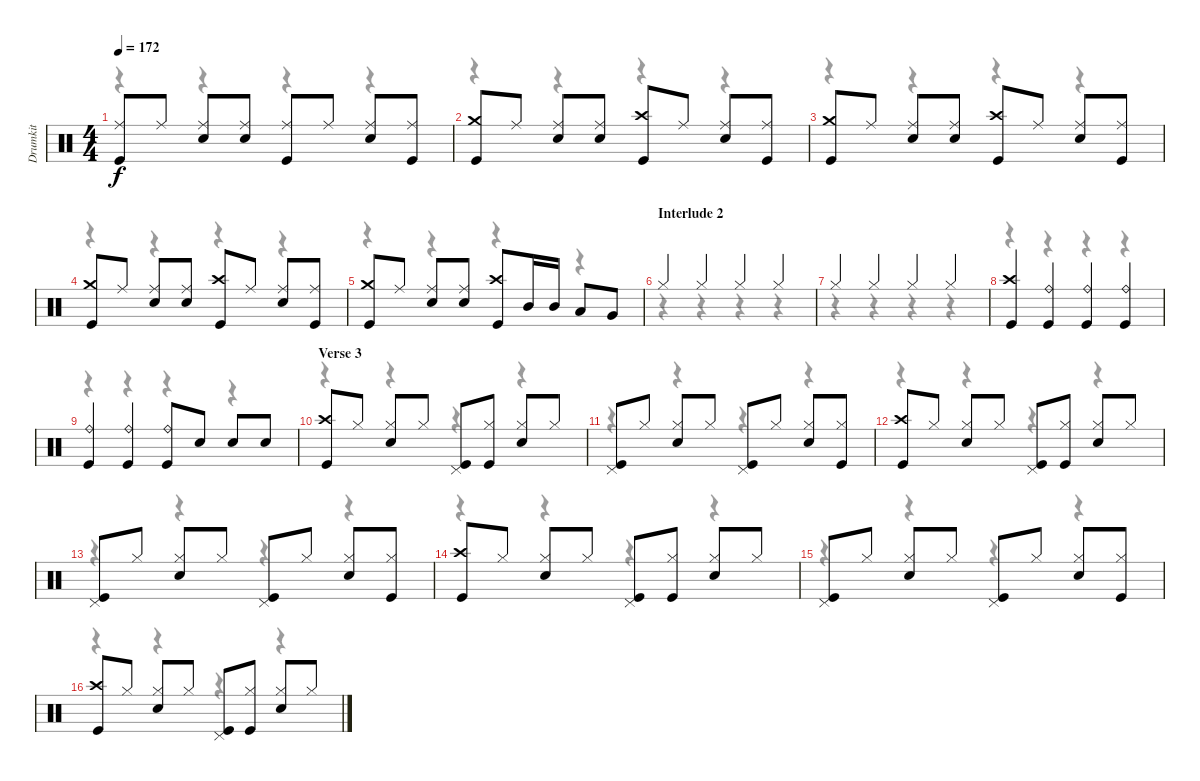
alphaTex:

\track ("Drumkit" "Drumkit") {instrument percussion}
\staff {score}
\articulation defaults
\voice
\ts (4 4)
\tempo 172
\clef neutral
\ks c
("Ride (middle)" "Kick (hit)").8{dy f} "Ride (middle)".8 ("Ride (middle)" "Snare (hit) 2").8 ("Ride (middle)" "Snare (hit) 2").8 ("Ride (middle)" "Kick (hit)").8 "Ride (middle)".8 ("Ride (middle)" "Snare (hit) 2").8 ("Ride (middle)" "Kick (hit)").8 |
("Crash medium (hit)" "Kick (hit)").8 "Ride (middle)".8 ("Ride (middle)" "Snare (hit) 2").8 ("Ride (middle)" "Snare (hit) 2").8 ("Crash high (hit)" "Kick (hit)").8 "Ride (middle)".8 ("Ride (middle)" "Snare (hit) 2").8 ("Ride (middle)" "Kick (hit)").8 |
("Crash medium (hit)" "Kick (hit)").8 "Ride (middle)".8 ("Ride (middle)" "Snare (hit) 2").8 ("Ride (middle)" "Snare (hit) 2").8 ("Crash high (hit)" "Kick (hit)").8 "Ride (middle)".8 ("Ride (middle)" "Snare (hit) 2").8 ("Ride (middle)" "Kick (hit)").8 |
("Crash medium (hit)" "Kick (hit)").8 "Ride (middle)".8 ("Ride (middle)" "Snare (hit) 2").8 ("Ride (middle)" "Snare (hit) 2").8 ("Crash high (hit)" "Kick (hit)").8 "Ride (middle)".8 ("Ride (middle)" "Snare (hit) 2").8 ("Ride (middle)" "Kick (hit)").8 |
("Crash medium (hit)" "Kick (hit)").8 "Ride (middle)".8 ("Ride (middle)" "Snare (hit) 2").8 ("Ride (middle)" "Snare (hit) 2").8 ("Crash high (hit)" "Kick (hit)").8 "Mid Tom (hit)".16 "Mid Tom (hit)".16 "Low Tom (hit)".8 "Very Low Tom (hit)".8 |
\section ("" "Interlude 2")
"Hi-Hat (closed)".4 "Hi-Hat (closed)".4 "Hi-Hat (closed)".4 "Hi-Hat (closed)".4 |
"Hi-Hat (closed)".4 "Hi-Hat (closed)".4 "Hi-Hat (closed)".4 "Hi-Hat (closed)".4 |
("Crash high (hit)" "Kick (hit)").4 ("Ride (bell)" "Kick (hit)").4 ("Ride (bell)" "Kick (hit)").4 ("Ride (bell)" "Kick (hit)").4 |
("Ride (bell)" "Kick (hit)").4 ("Ride (bell)" "Kick (hit)").4 ("Ride (bell)" "Kick (hit)").8 "Snare (hit) 2".8 "Snare (hit) 2".8 "Snare (hit) 2".8 |
\section ("" "Verse 3")
("Crash high (hit)" "Kick (hit)").8 "Hi-Hat (closed)".8 ("Hi-Hat (closed)" "Snare (hit) 2").8 "Hi-Hat (closed)".8 ("Pedal Hi-Hat (hit)" "Kick (hit)").8 ("Hi-Hat (closed)" "Kick (hit)").8 ("Hi-Hat (closed)" "Snare (hit) 2").8 "Hi-Hat (closed)".8 |
("Pedal Hi-Hat (hit)" "Kick (hit)").8 "Hi-Hat (closed)".8 ("Hi-Hat (closed)" "Snare (hit) 2").8 "Hi-Hat (closed)".8 ("Pedal Hi-Hat (hit)" "Kick (hit)").8 "Hi-Hat (closed)".8 ("Hi-Hat (closed)" "Snare (hit) 2").8 ("Hi-Hat (closed)" "Kick (hit)").8 |
("Crash high (hit)" "Kick (hit)").8 "Hi-Hat (closed)".8 ("Hi-Hat (closed)" "Snare (hit) 2").8 "Hi-Hat (closed)".8 ("Pedal Hi-Hat (hit)" "Kick (hit)").8 ("Hi-Hat (closed)" "Kick (hit)").8 ("Hi-Hat (closed)" "Snare (hit) 2").8 "Hi-Hat (closed)".8 |
("Pedal Hi-Hat (hit)" "Kick (hit)").8 "Hi-Hat (closed)".8 ("Hi-Hat (closed)" "Snare (hit) 2").8 "Hi-Hat (closed)".8 ("Pedal Hi-Hat (hit)" "Kick (hit)").8 "Hi-Hat (closed)".8 ("Hi-Hat (closed)" "Snare (hit) 2").8 ("Hi-Hat (closed)" "Kick (hit)").8 |
("Crash high (hit)" "Kick (hit)").8 "Hi-Hat (closed)".8 ("Hi-Hat (closed)" "Snare (hit) 2").8 "Hi-Hat (closed)".8 ("Pedal Hi-Hat (hit)" "Kick (hit)").8 ("Hi-Hat (closed)" "Kick (hit)").8 ("Hi-Hat (closed)" "Snare (hit) 2").8 "Hi-Hat (closed)".8 |
("Pedal Hi-Hat (hit)" "Kick (hit)").8 "Hi-Hat (closed)".8 ("Hi-Hat (closed)" "Snare (hit) 2").8 "Hi-Hat (closed)".8 ("Pedal Hi-Hat (hit)" "Kick (hit)").8 "Hi-Hat (closed)".8 ("Hi-Hat (closed)" "Snare (hit) 2").8 ("Hi-Hat (closed)" "Kick (hit)").8 |
("Crash high (hit)" "Kick (hit)").8 "Hi-Hat (closed)".8 ("Hi-Hat (closed)" "Snare (hit) 2").8 "Hi-Hat (closed)".8 ("Pedal Hi-Hat (hit)" "Kick (hit)").8 ("Hi-Hat (closed)" "Kick (hit)").8 ("Hi-Hat (closed)" "Snare (hit) 2").8 "Hi-Hat (closed)".8
\voice
\clef neutral
\ottava regular
\simile none
\ks c
r.4{dy f} r.4 r.4 r.4 |
r.4 r.4 r.4 r.4 |
r.4 r.4 r.4 r.4 |
r.4 r.4 r.4 r.4 |
r.4 r.4 r.4 r.4 |
r.4 r.4 r.4 r.4 |
r.4 r.4 r.4 r.4 |
r.4 r.4 r.4 r.4 |
r.4 r.4 r.4 r.4 |
r.4 r.4 r.4 r.4 |
r.4 r.4 r.4 r.4 |
r.4 r.4 r.4 r.4 |
r.4 r.4 r.4 r.4 |
r.4 r.4 r.4 r.4 |
r.4 r.4 r.4 r.4 |
r.4 r.4 r.4 r.4
